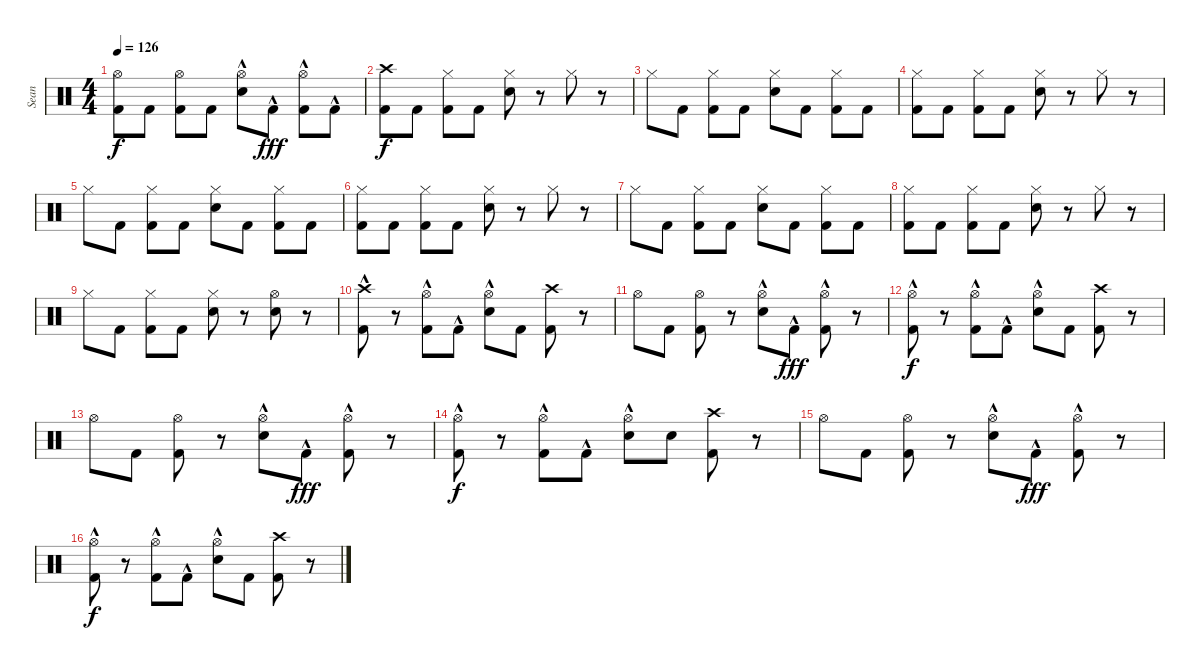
\track ("Sean" "Sean") {instrument percussion}
\staff {score}
\articulation defaults
\ts (4 4)
\tempo 126
\clef neutral
\ks c
("Hi-Hat (open)" "Kick (hit) 2").8{dy f} "Kick (hit) 2".8 ("Hi-Hat (open)" "Kick (hit) 2").8 "Kick (hit) 2".8 ("Hi-Hat (open)" "Snare (hit) 2"{hac}).8 "Kick (hit) 2"{hac}.8{dy fff} ("Hi-Hat (open)" "Kick (hit) 2"{hac}).8 "Kick (hit) 2"{hac}.8 |
("Crash high (hit)" "Kick (hit) 2").8{dy f} "Kick (hit) 2".8 ("Hi-Hat (closed)" "Kick (hit) 2").8 "Kick (hit) 2".8 ("Hi-Hat (closed)" "Snare (hit) 2").8 r.8 "Hi-Hat (closed)".8 r.8 |
"Hi-Hat (closed)".8 "Kick (hit) 2".8 ("Hi-Hat (closed)" "Kick (hit) 2").8 "Kick (hit) 2".8 ("Hi-Hat (closed)" "Snare (hit) 2").8 "Kick (hit) 2".8 ("Hi-Hat (closed)" "Kick (hit) 2").8 "Kick (hit) 2".8 |
("Hi-Hat (closed)" "Kick (hit) 2").8 "Kick (hit) 2".8 ("Hi-Hat (closed)" "Kick (hit) 2").8 "Kick (hit) 2".8 ("Hi-Hat (closed)" "Snare (hit) 2").8 r.8 "Hi-Hat (closed)".8 r.8 |
"Hi-Hat (closed)".8 "Kick (hit) 2".8 ("Hi-Hat (closed)" "Kick (hit) 2").8 "Kick (hit) 2".8 ("Hi-Hat (closed)" "Snare (hit) 2").8 "Kick (hit) 2".8 ("Hi-Hat (closed)" "Kick (hit) 2").8 "Kick (hit) 2".8 |
("Hi-Hat (closed)" "Kick (hit) 2").8 "Kick (hit) 2".8 ("Hi-Hat (closed)" "Kick (hit) 2").8 "Kick (hit) 2".8 ("Hi-Hat (closed)" "Snare (hit) 2").8 r.8 "Hi-Hat (closed)".8 r.8 |
"Hi-Hat (closed)".8 "Kick (hit) 2".8 ("Hi-Hat (closed)" "Kick (hit) 2").8 "Kick (hit) 2".8 ("Hi-Hat (closed)" "Snare (hit) 2").8 "Kick (hit) 2".8 ("Hi-Hat (closed)" "Kick (hit) 2").8 "Kick (hit) 2".8 |
("Hi-Hat (closed)" "Kick (hit) 2").8 "Kick (hit) 2".8 ("Hi-Hat (closed)" "Kick (hit) 2").8 "Kick (hit) 2".8 ("Hi-Hat (closed)" "Snare (hit) 2").8 r.8 "Hi-Hat (closed)".8 r.8 |
"Hi-Hat (closed)".8 "Kick (hit) 2".8 ("Hi-Hat (closed)" "Kick (hit) 2").8 "Kick (hit) 2".8 ("Hi-Hat (closed)" "Snare (hit) 2").8 r.8 ("Hi-Hat (open)" "Snare (hit) 2").8 r.8 |
("Crash high (hit)" "Kick (hit) 2"{hac}).8 r.8 ("Hi-Hat (open)" "Kick (hit) 2"{hac}).8 "Kick (hit) 2"{hac}.8 ("Hi-Hat (open)" "Snare (hit) 2"{hac}).8 "Kick (hit) 2".8 ("Crash high (hit)" "Kick (hit) 2").8 r.8 |
"Hi-Hat (open)".8 "Kick (hit) 2".8 ("Hi-Hat (open)" "Kick (hit) 2").8 r.8 ("Hi-Hat (open)" "Snare (hit) 2"{hac}).8 "Kick (hit) 2"{hac}.8{dy fff} ("Hi-Hat (open)" "Kick (hit) 2"{hac}).8 r.8 |
("Hi-Hat (open)" "Kick (hit) 2"{hac}).8{dy f} r.8 ("Hi-Hat (open)" "Kick (hit) 2"{hac}).8 "Kick (hit) 2"{hac}.8 ("Hi-Hat (open)" "Snare (hit) 2"{hac}).8 "Kick (hit) 2".8 ("Crash high (hit)" "Kick (hit) 2").8 r.8 |
"Hi-Hat (open)".8 "Kick (hit) 2".8 ("Hi-Hat (open)" "Kick (hit) 2").8 r.8 ("Hi-Hat (open)" "Snare (hit) 2"{hac}).8 "Kick (hit) 2"{hac}.8{dy fff} ("Hi-Hat (open)" "Kick (hit) 2"{hac}).8 r.8 |
("Hi-Hat (open)" "Kick (hit) 2"{hac}).8{dy f} r.8 ("Hi-Hat (open)" "Kick (hit) 2"{hac}).8 "Kick (hit) 2"{hac}.8 ("Hi-Hat (open)" "Snare (hit) 2"{hac}).8 "Snare (hit) 2".8 ("Crash high (hit)" "Kick (hit) 2").8 r.8 |
"Hi-Hat (open)".8 "Kick (hit) 2".8 ("Hi-Hat (open)" "Kick (hit) 2").8 r.8 ("Hi-Hat (open)" "Snare (hit) 2"{hac}).8 "Kick (hit) 2"{hac}.8{dy fff} ("Hi-Hat (open)" "Kick (hit) 2"{hac}).8 r.8 |
("Hi-Hat (open)" "Kick (hit) 2"{hac}).8{dy f} r.8 ("Hi-Hat (open)" "Kick (hit) 2"{hac}).8 "Kick (hit) 2"{hac}.8 ("Hi-Hat (open)" "Snare (hit) 2"{hac}).8 "Kick (hit) 2".8 ("Crash high (hit)" "Kick (hit) 2").8 r.8
